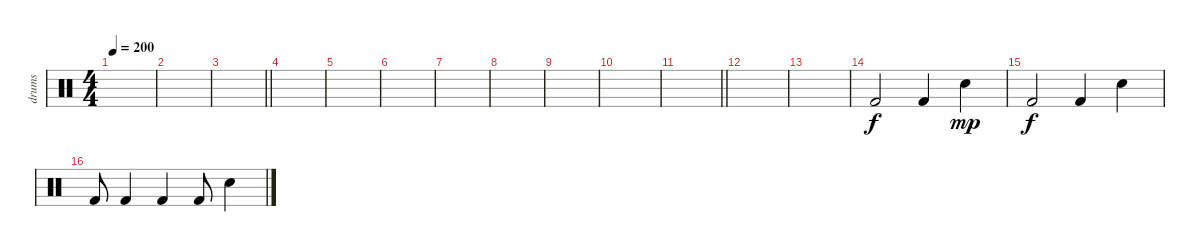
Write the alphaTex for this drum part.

\track ("drums" "drums") {instrument percussion}
\staff {score}
\articulation defaults
\ts (4 4)
\tempo 200
\clef neutral
\ks c
|
|
\barLineRight lightlight
|
|
|
|
|
|
|
|
\barLineRight lightlight
|
|
|
"Kick (hit) 2".2 "Kick (hit) 2".4 "Electric Snare (hit)".4{dy mp} |
"Kick (hit) 2".2{dy f} "Kick (hit) 2".4 "Electric Snare (hit)".4 |
"Kick (hit) 2".8 "Kick (hit) 2".4 "Kick (hit) 2".4 "Kick (hit) 2".8 "Electric Snare (hit)".4
